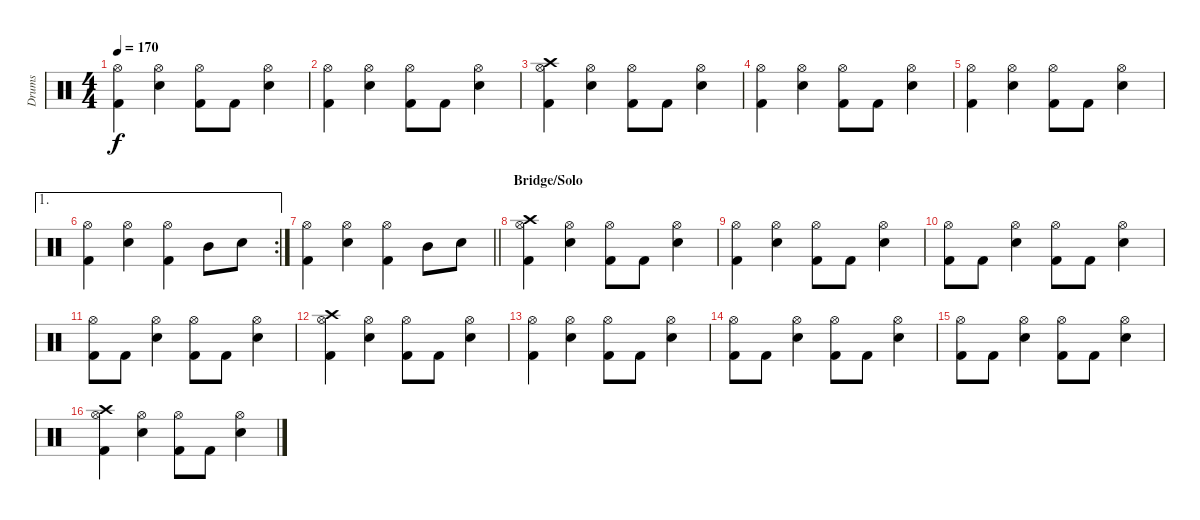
\track ("Drums" "Drums") {instrument percussion}
\staff {score}
\articulation defaults
\ts (4 4)
\tempo 170
\clef neutral
\ks c
("Hi-Hat (open)" "Kick (hit) 2").4{dy f} ("Hi-Hat (open)" "Electric Snare (hit)").4 ("Hi-Hat (open)" "Kick (hit) 2").8 "Kick (hit) 2".8 ("Hi-Hat (open)" "Electric Snare (hit)").4 |
("Hi-Hat (open)" "Kick (hit) 2").4 ("Hi-Hat (open)" "Electric Snare (hit)").4 ("Hi-Hat (open)" "Kick (hit) 2").8 "Kick (hit) 2".8 ("Hi-Hat (open)" "Electric Snare (hit)").4 |
("Crash high (hit)" "Hi-Hat (open)" "Kick (hit) 2").4 ("Hi-Hat (open)" "Electric Snare (hit)").4 ("Hi-Hat (open)" "Kick (hit) 2").8 "Kick (hit) 2".8 ("Hi-Hat (open)" "Electric Snare (hit)").4 |
("Hi-Hat (open)" "Kick (hit) 2").4 ("Hi-Hat (open)" "Electric Snare (hit)").4 ("Hi-Hat (open)" "Kick (hit) 2").8 "Kick (hit) 2".8 ("Hi-Hat (open)" "Electric Snare (hit)").4 |
("Hi-Hat (open)" "Kick (hit) 2").4 ("Hi-Hat (open)" "Electric Snare (hit)").4 ("Hi-Hat (open)" "Kick (hit) 2").8 "Kick (hit) 2".8 ("Hi-Hat (open)" "Electric Snare (hit)").4 |
\ae 1
\rc 2
("Hi-Hat (open)" "Kick (hit) 2").4 ("Hi-Hat (open)" "Electric Snare (hit)").4 ("Hi-Hat (open)" "Kick (hit) 2").4 "Mid Tom (hit)".8 "Electric Snare (hit)".8 |
\barLineRight lightlight
("Hi-Hat (open)" "Kick (hit) 2").4 ("Hi-Hat (open)" "Electric Snare (hit)").4 ("Hi-Hat (open)" "Kick (hit) 2").4 "Mid Tom (hit)".8 "Electric Snare (hit)".8 |
\section ("" "Bridge/Solo")
("Crash high (hit)" "Hi-Hat (open)" "Kick (hit) 2").4 ("Hi-Hat (open)" "Electric Snare (hit)").4 ("Hi-Hat (open)" "Kick (hit) 2").8 "Kick (hit) 2".8 ("Hi-Hat (open)" "Electric Snare (hit)").4 |
("Hi-Hat (open)" "Kick (hit) 2").4 ("Hi-Hat (open)" "Electric Snare (hit)").4 ("Hi-Hat (open)" "Kick (hit) 2").8 "Kick (hit) 2".8 ("Hi-Hat (open)" "Electric Snare (hit)").4 |
("Hi-Hat (open)" "Kick (hit) 2").8 "Kick (hit) 2".8 ("Hi-Hat (open)" "Electric Snare (hit)").4 ("Hi-Hat (open)" "Kick (hit) 2").8 "Kick (hit) 2".8 ("Hi-Hat (open)" "Electric Snare (hit)").4 |
("Hi-Hat (open)" "Kick (hit) 2").8 "Kick (hit) 2".8 ("Hi-Hat (open)" "Electric Snare (hit)").4 ("Hi-Hat (open)" "Kick (hit) 2").8 "Kick (hit) 2".8 ("Hi-Hat (open)" "Electric Snare (hit)").4 |
("Crash high (hit)" "Hi-Hat (open)" "Kick (hit) 2").4 ("Hi-Hat (open)" "Electric Snare (hit)").4 ("Hi-Hat (open)" "Kick (hit) 2").8 "Kick (hit) 2".8 ("Hi-Hat (open)" "Electric Snare (hit)").4 |
("Hi-Hat (open)" "Kick (hit) 2").4 ("Hi-Hat (open)" "Electric Snare (hit)").4 ("Hi-Hat (open)" "Kick (hit) 2").8 "Kick (hit) 2".8 ("Hi-Hat (open)" "Electric Snare (hit)").4 |
("Hi-Hat (open)" "Kick (hit) 2").8 "Kick (hit) 2".8 ("Hi-Hat (open)" "Electric Snare (hit)").4 ("Hi-Hat (open)" "Kick (hit) 2").8 "Kick (hit) 2".8 ("Hi-Hat (open)" "Electric Snare (hit)").4 |
("Hi-Hat (open)" "Kick (hit) 2").8 "Kick (hit) 2".8 ("Hi-Hat (open)" "Electric Snare (hit)").4 ("Hi-Hat (open)" "Kick (hit) 2").8 "Kick (hit) 2".8 ("Hi-Hat (open)" "Electric Snare (hit)").4 |
("Crash high (hit)" "Hi-Hat (open)" "Kick (hit) 2").4 ("Hi-Hat (open)" "Electric Snare (hit)").4 ("Hi-Hat (open)" "Kick (hit) 2").8 "Kick (hit) 2".8 ("Hi-Hat (open)" "Electric Snare (hit)").4
